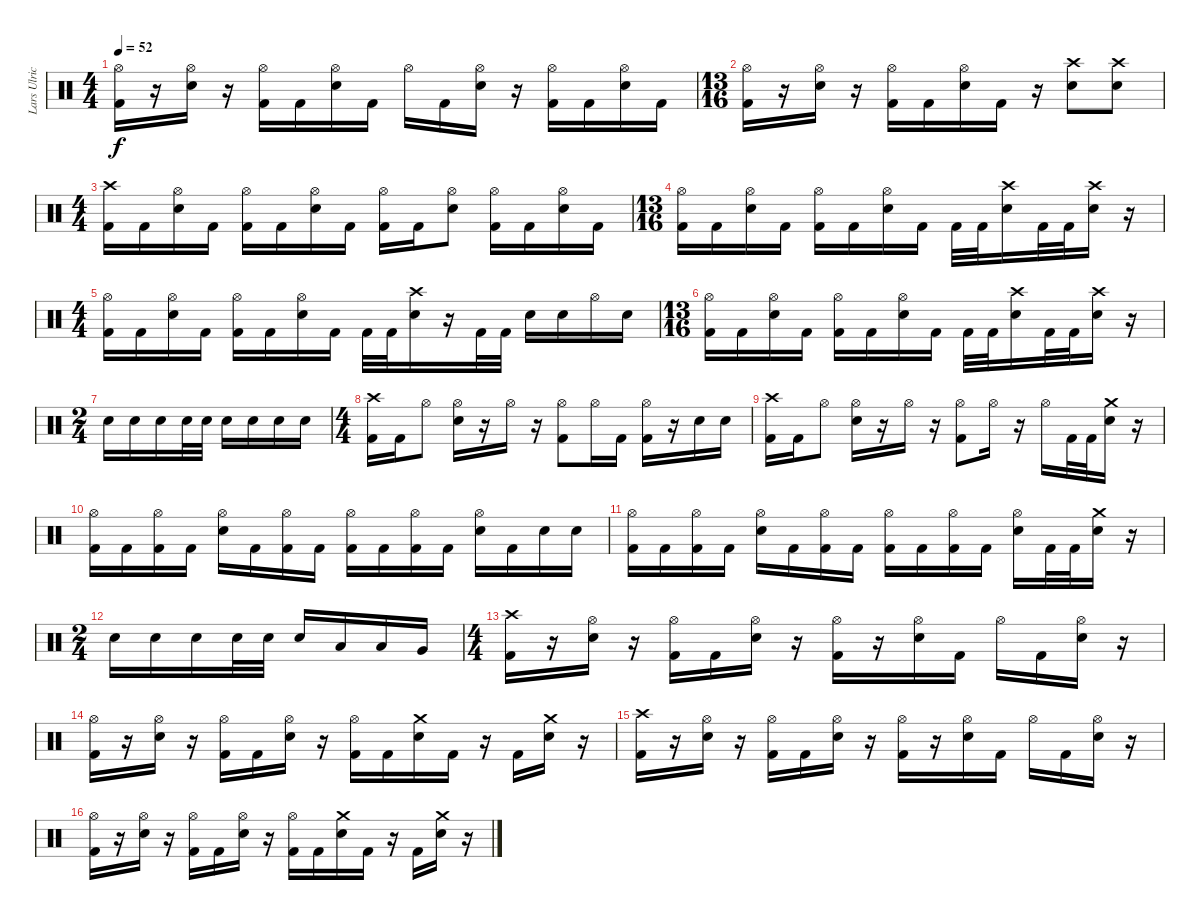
\track ("Lars Ulrich" "Lars Ulric") {instrument percussion}
\staff {score}
\articulation defaults
\ts (4 4)
\tempo 52
\clef neutral
\ks c
("Hi-Hat (open)" "Kick (hit) 2").16{dy f} r.16 ("Hi-Hat (open)" "Snare (hit) 2").16 r.16 ("Hi-Hat (open)" "Kick (hit) 2").16 "Kick (hit) 2".16 ("Hi-Hat (open)" "Snare (hit) 2").16 "Kick (hit) 2".16 "Hi-Hat (open)".16 "Kick (hit) 2".16 ("Hi-Hat (open)" "Snare (hit) 2").16 r.16 ("Hi-Hat (open)" "Kick (hit) 2").16 "Kick (hit) 2".16 ("Hi-Hat (open)" "Snare (hit) 2").16 "Kick (hit) 2".16 |
\ts (13 16)
("Hi-Hat (open)" "Kick (hit) 2").16 r.16 ("Hi-Hat (open)" "Snare (hit) 2").16 r.16 ("Hi-Hat (open)" "Kick (hit) 2").16 "Kick (hit) 2".16 ("Hi-Hat (open)" "Snare (hit) 2").16 "Kick (hit) 2".16 r.16 ("Crash high (hit)" "Snare (hit) 2").8 ("Crash high (hit)" "Snare (hit) 2").8 |
\ts (4 4)
("Crash high (hit)" "Kick (hit) 2").16 "Kick (hit) 2".16 ("Hi-Hat (open)" "Snare (hit) 2").16 "Kick (hit) 2".16 ("Hi-Hat (open)" "Kick (hit) 2").16 "Kick (hit) 2".16 ("Hi-Hat (open)" "Snare (hit) 2").16 "Kick (hit) 2".16 ("Hi-Hat (open)" "Kick (hit) 2").16 "Kick (hit) 2".16 ("Hi-Hat (open)" "Snare (hit) 2").8 ("Hi-Hat (open)" "Kick (hit) 2").16 "Kick (hit) 2".16 ("Hi-Hat (open)" "Snare (hit) 2").16 "Kick (hit) 2".16 |
\ts (13 16)
("Hi-Hat (open)" "Kick (hit) 2").16 "Kick (hit) 2".16 ("Hi-Hat (open)" "Snare (hit) 2").16 "Kick (hit) 2".16 ("Hi-Hat (open)" "Kick (hit) 2").16 "Kick (hit) 2".16 ("Hi-Hat (open)" "Snare (hit) 2").16 "Kick (hit) 2".16 "Kick (hit) 2".32 "Kick (hit) 2".32 ("Crash high (hit)" "Snare (hit) 2").16 "Kick (hit) 2".32 "Kick (hit) 2".32 ("Crash high (hit)" "Snare (hit) 2").16 r.16 |
\ts (4 4)
("Hi-Hat (open)" "Kick (hit) 2").16 "Kick (hit) 2".16 ("Hi-Hat (open)" "Snare (hit) 2").16 "Kick (hit) 2".16 ("Hi-Hat (open)" "Kick (hit) 2").16 "Kick (hit) 2".16 ("Hi-Hat (open)" "Snare (hit) 2").16 "Kick (hit) 2".16 "Kick (hit) 2".32 "Kick (hit) 2".32 ("Crash high (hit)" "Snare (hit) 2").16 r.16 "Kick (hit) 2".32 "Kick (hit) 2".32 "Snare (hit) 2".16 "Snare (hit) 2".16 "Hi-Hat (open)".16 "Snare (hit) 2".16 |
\ts (13 16)
("Hi-Hat (open)" "Kick (hit) 2").16 "Kick (hit) 2".16 ("Hi-Hat (open)" "Snare (hit) 2").16 "Kick (hit) 2".16 ("Hi-Hat (open)" "Kick (hit) 2").16 "Kick (hit) 2".16 ("Hi-Hat (open)" "Snare (hit) 2").16 "Kick (hit) 2".16 "Kick (hit) 2".32 "Kick (hit) 2".32 ("Crash high (hit)" "Snare (hit) 2").16 "Kick (hit) 2".32 "Kick (hit) 2".32 ("Crash high (hit)" "Snare (hit) 2").16 r.16 |
\ts (2 4)
"Snare (hit) 2".16 "Snare (hit) 2".16 "Snare (hit) 2".16 "Snare (hit) 2".32 "Snare (hit) 2".32 "Snare (hit) 2".16 "Snare (hit) 2".16 "Snare (hit) 2".16 "Snare (hit) 2".16 |
\ts (4 4)
("Crash high (hit)" "Kick (hit) 2").16 "Kick (hit) 2".16 "Hi-Hat (open)".8 ("Hi-Hat (open)" "Snare (hit) 2").16 r.16 "Hi-Hat (open)".16 r.16 ("Hi-Hat (open)" "Kick (hit) 2").8 "Hi-Hat (open)".16 "Kick (hit) 2".16 ("Hi-Hat (open)" "Kick (hit) 2").16 r.16 "Snare (hit) 2".16 "Snare (hit) 2".16 |
("Crash high (hit)" "Kick (hit) 2").16 "Kick (hit) 2".16 "Hi-Hat (open)".8 ("Hi-Hat (open)" "Snare (hit) 2").16 r.16 "Hi-Hat (open)".16 r.16 ("Hi-Hat (open)" "Kick (hit) 2").8 "Hi-Hat (open)".16 r.16 "Hi-Hat (open)".16 "Kick (hit) 2".32 "Kick (hit) 2".32 ("Crash medium (hit)" "Snare (hit) 2").16 r.16 |
("Hi-Hat (open)" "Kick (hit) 2").16 "Kick (hit) 2".16 ("Hi-Hat (open)" "Kick (hit) 2").16 "Kick (hit) 2".16 ("Hi-Hat (open)" "Snare (hit) 2").16 "Kick (hit) 2".16 ("Hi-Hat (open)" "Kick (hit) 2").16 "Kick (hit) 2".16 ("Hi-Hat (open)" "Kick (hit) 2").16 "Kick (hit) 2".16 ("Hi-Hat (open)" "Kick (hit) 2").16 "Kick (hit) 2".16 ("Hi-Hat (open)" "Snare (hit) 2").16 "Kick (hit) 2".16 "Snare (hit) 2".16 "Snare (hit) 2".16 |
("Hi-Hat (open)" "Kick (hit) 2").16 "Kick (hit) 2".16 ("Hi-Hat (open)" "Kick (hit) 2").16 "Kick (hit) 2".16 ("Hi-Hat (open)" "Snare (hit) 2").16 "Kick (hit) 2".16 ("Hi-Hat (open)" "Kick (hit) 2").16 "Kick (hit) 2".16 ("Hi-Hat (open)" "Kick (hit) 2").16 "Kick (hit) 2".16 ("Hi-Hat (open)" "Kick (hit) 2").16 "Kick (hit) 2".16 ("Hi-Hat (open)" "Snare (hit) 2").16 "Kick (hit) 2".32 "Kick (hit) 2".32 ("Crash medium (hit)" "Snare (hit) 2").16 r.16 |
\ts (2 4)
"Snare (hit) 2".16 "Snare (hit) 2".16 "Snare (hit) 2".16 "Snare (hit) 2".32 "Snare (hit) 2".32 "Snare (hit) 2".16 "Low Tom (hit)".16 "Low Tom (hit)".16 "Very Low Tom (hit)".16 |
\ts (4 4)
("Crash high (hit)" "Kick (hit) 2").16 r.16 ("Hi-Hat (open)" "Snare (hit) 2").16 r.16 ("Hi-Hat (open)" "Kick (hit) 2").16 "Kick (hit) 2".16 ("Hi-Hat (open)" "Snare (hit) 2").16 r.16 ("Hi-Hat (open)" "Kick (hit) 2").16 r.16 ("Hi-Hat (open)" "Snare (hit) 2").16 "Kick (hit) 2".16 "Hi-Hat (open)".16 "Kick (hit) 2".16 ("Hi-Hat (open)" "Snare (hit) 2").16 r.16 |
("Hi-Hat (open)" "Kick (hit) 2").16 r.16 ("Hi-Hat (open)" "Snare (hit) 2").16 r.16 ("Hi-Hat (open)" "Kick (hit) 2").16 "Kick (hit) 2".16 ("Hi-Hat (open)" "Snare (hit) 2").16 r.16 ("Hi-Hat (open)" "Kick (hit) 2").16 "Kick (hit) 2".16 ("Crash medium (hit)" "Snare (hit) 2").16 "Kick (hit) 2".16 r.16 "Kick (hit) 2".16 ("Crash medium (hit)" "Snare (hit) 2").16 r.16 |
("Crash high (hit)" "Kick (hit) 2").16 r.16 ("Hi-Hat (open)" "Snare (hit) 2").16 r.16 ("Hi-Hat (open)" "Kick (hit) 2").16 "Kick (hit) 2".16 ("Hi-Hat (open)" "Snare (hit) 2").16 r.16 ("Hi-Hat (open)" "Kick (hit) 2").16 r.16 ("Hi-Hat (open)" "Snare (hit) 2").16 "Kick (hit) 2".16 "Hi-Hat (open)".16 "Kick (hit) 2".16 ("Hi-Hat (open)" "Snare (hit) 2").16 r.16 |
("Hi-Hat (open)" "Kick (hit) 2").16 r.16 ("Hi-Hat (open)" "Snare (hit) 2").16 r.16 ("Hi-Hat (open)" "Kick (hit) 2").16 "Kick (hit) 2".16 ("Hi-Hat (open)" "Snare (hit) 2").16 r.16 ("Hi-Hat (open)" "Kick (hit) 2").16 "Kick (hit) 2".16 ("Crash medium (hit)" "Snare (hit) 2").16 "Kick (hit) 2".16 r.16 "Kick (hit) 2".16 ("Crash medium (hit)" "Snare (hit) 2").16 r.16
